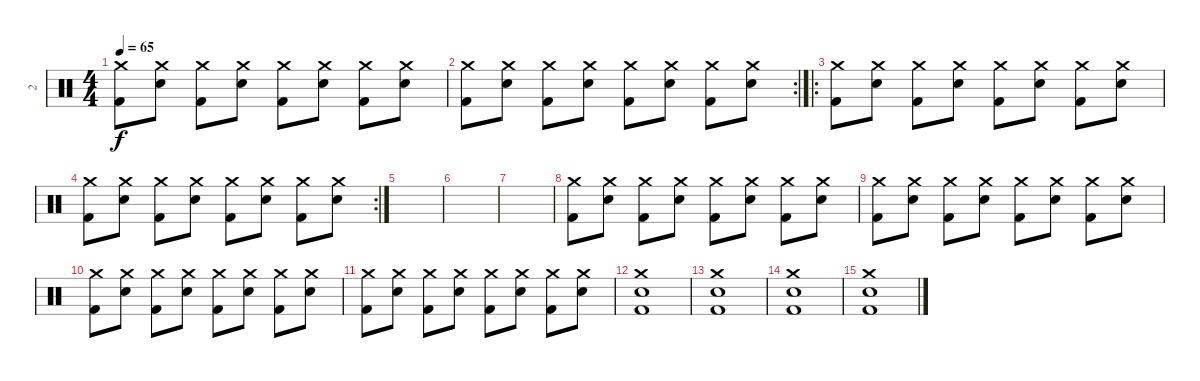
\track (" 2" " 2") {instrument percussion}
\staff {score}
\articulation defaults
\ts (4 4)
\tempo 65
\clef neutral
\ks c
("Crash medium (hit)" "Kick (hit) 2").8{dy f} ("Crash medium (hit)" "Snare (hit) 2").8 ("Crash medium (hit)" "Kick (hit) 2").8 ("Crash medium (hit)" "Snare (hit) 2").8 ("Crash medium (hit)" "Kick (hit) 2").8 ("Crash medium (hit)" "Snare (hit) 2").8 ("Crash medium (hit)" "Kick (hit) 2").8 ("Crash medium (hit)" "Snare (hit) 2").8 |
\rc 2
("Crash medium (hit)" "Kick (hit) 2").8 ("Crash medium (hit)" "Snare (hit) 2").8 ("Crash medium (hit)" "Kick (hit) 2").8 ("Crash medium (hit)" "Snare (hit) 2").8 ("Crash medium (hit)" "Kick (hit) 2").8 ("Crash medium (hit)" "Snare (hit) 2").8 ("Crash medium (hit)" "Kick (hit) 2").8 ("Crash medium (hit)" "Snare (hit) 2").8 |
\ro
("Crash medium (hit)" "Kick (hit) 2").8 ("Crash medium (hit)" "Snare (hit) 2").8 ("Crash medium (hit)" "Kick (hit) 2").8 ("Crash medium (hit)" "Snare (hit) 2").8 ("Crash medium (hit)" "Kick (hit) 2").8 ("Crash medium (hit)" "Snare (hit) 2").8 ("Crash medium (hit)" "Kick (hit) 2").8 ("Crash medium (hit)" "Snare (hit) 2").8 |
\rc 2
("Crash medium (hit)" "Kick (hit) 2").8 ("Crash medium (hit)" "Snare (hit) 2").8 ("Crash medium (hit)" "Kick (hit) 2").8 ("Crash medium (hit)" "Snare (hit) 2").8 ("Crash medium (hit)" "Kick (hit) 2").8 ("Crash medium (hit)" "Snare (hit) 2").8 ("Crash medium (hit)" "Kick (hit) 2").8 ("Crash medium (hit)" "Snare (hit) 2").8 |
|
|
|
("Crash medium (hit)" "Kick (hit) 2").8 ("Crash medium (hit)" "Snare (hit) 2").8 ("Crash medium (hit)" "Kick (hit) 2").8 ("Crash medium (hit)" "Snare (hit) 2").8 ("Crash medium (hit)" "Kick (hit) 2").8 ("Crash medium (hit)" "Snare (hit) 2").8 ("Crash medium (hit)" "Kick (hit) 2").8 ("Crash medium (hit)" "Snare (hit) 2").8 |
("Crash medium (hit)" "Kick (hit) 2").8 ("Crash medium (hit)" "Snare (hit) 2").8 ("Crash medium (hit)" "Kick (hit) 2").8 ("Crash medium (hit)" "Snare (hit) 2").8 ("Crash medium (hit)" "Kick (hit) 2").8 ("Crash medium (hit)" "Snare (hit) 2").8 ("Crash medium (hit)" "Kick (hit) 2").8 ("Crash medium (hit)" "Snare (hit) 2").8 |
("Crash medium (hit)" "Kick (hit) 2").8 ("Crash medium (hit)" "Snare (hit) 2").8 ("Crash medium (hit)" "Kick (hit) 2").8 ("Crash medium (hit)" "Snare (hit) 2").8 ("Crash medium (hit)" "Kick (hit) 2").8 ("Crash medium (hit)" "Snare (hit) 2").8 ("Crash medium (hit)" "Kick (hit) 2").8 ("Crash medium (hit)" "Snare (hit) 2").8 |
("Crash medium (hit)" "Kick (hit) 2").8 ("Crash medium (hit)" "Snare (hit) 2").8 ("Crash medium (hit)" "Kick (hit) 2").8 ("Crash medium (hit)" "Snare (hit) 2").8 ("Crash medium (hit)" "Kick (hit) 2").8 ("Crash medium (hit)" "Snare (hit) 2").8 ("Crash medium (hit)" "Kick (hit) 2").8 ("Crash medium (hit)" "Snare (hit) 2").8 |
("Crash medium (hit)" "Snare (hit) 2" "Kick (hit) 2").1 |
("Crash medium (hit)" "Snare (hit) 2" "Kick (hit) 2").1 |
("Crash medium (hit)" "Snare (hit) 2" "Kick (hit) 2").1 |
("Crash medium (hit)" "Snare (hit) 2" "Kick (hit) 2").1
